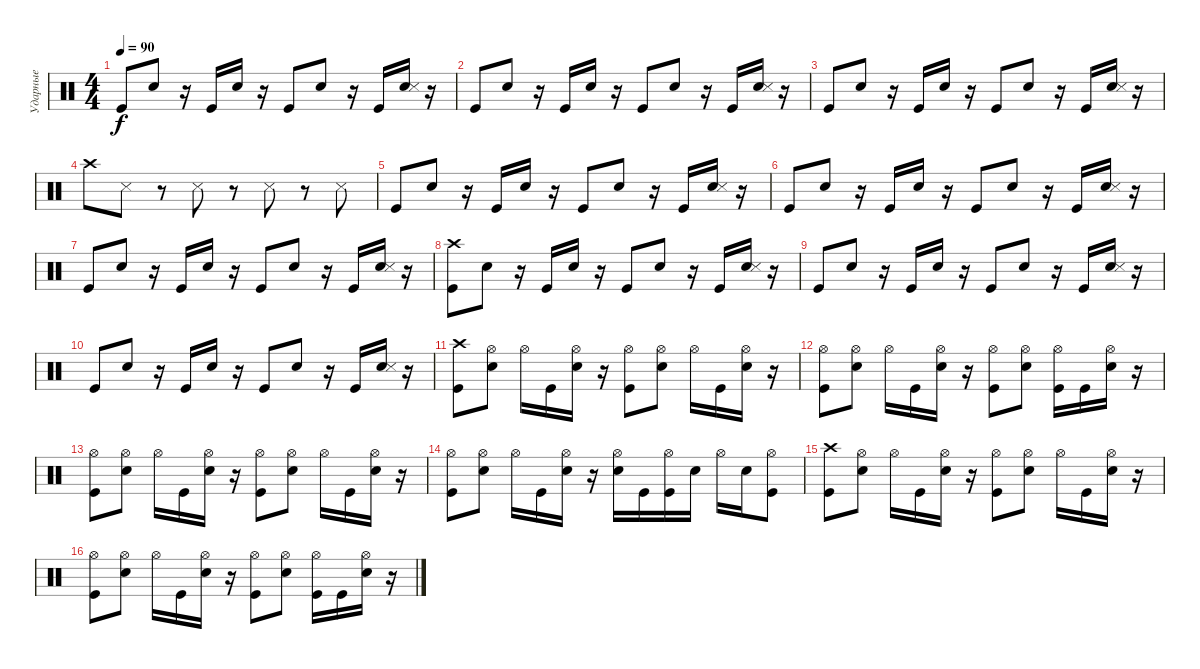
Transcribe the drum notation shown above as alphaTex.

\track ("Ударные" "Ударные") {instrument percussion}
\staff {score}
\articulation defaults
\ts (4 4)
\tempo 90
\clef neutral
\ks c "Kick (hit)".8{dy f} "Snare (hit) 2".8
r.16 "Kick (hit)".16 "Snare (hit) 2".16 r.16 "Kick (hit)".8 "Snare (hit) 2".8 r.16 "Kick (hit)".16 ("Snare (hit) 2" "Snare (side stick) 3").16 r.16 |
"Kick (hit)".8 "Snare (hit) 2".8 r.16 "Kick (hit)".16 "Snare (hit) 2".16 r.16 "Kick (hit)".8 "Snare (hit) 2".8 r.16 "Kick (hit)".16 ("Snare (hit) 2" "Snare (side stick) 3").16 r.16 |
"Kick (hit)".8 "Snare (hit) 2".8 r.16 "Kick (hit)".16 "Snare (hit) 2".16 r.16 "Kick (hit)".8 "Snare (hit) 2".8 r.16 "Kick (hit)".16 ("Snare (hit) 2" "Snare (side stick) 3").16 r.16 |
"Crash high (hit)".8 "Snare (side stick) 3".8 r.8 "Snare (side stick) 3".8 r.8 "Snare (side stick) 3".8 r.8 "Snare (side stick) 3".8 |
"Kick (hit)".8 "Snare (hit) 2".8 r.16 "Kick (hit)".16 "Snare (hit) 2".16 r.16 "Kick (hit)".8 "Snare (hit) 2".8 r.16 "Kick (hit)".16 ("Snare (hit) 2" "Snare (side stick) 3").16 r.16 |
"Kick (hit)".8 "Snare (hit) 2".8 r.16 "Kick (hit)".16 "Snare (hit) 2".16 r.16 "Kick (hit)".8 "Snare (hit) 2".8 r.16 "Kick (hit)".16 ("Snare (hit) 2" "Snare (side stick) 3").16 r.16 |
"Kick (hit)".8 "Snare (hit) 2".8 r.16 "Kick (hit)".16 "Snare (hit) 2".16 r.16 "Kick (hit)".8 "Snare (hit) 2".8 r.16 "Kick (hit)".16 ("Snare (hit) 2" "Snare (side stick) 3").16 r.16 |
("Kick (hit)" "Crash high (hit)").8 "Snare (hit) 2".8 r.16 "Kick (hit)".16 "Snare (hit) 2".16 r.16 "Kick (hit)".8 "Snare (hit) 2".8 r.16 "Kick (hit)".16 ("Snare (hit) 2" "Snare (side stick) 3").16 r.16 |
"Kick (hit)".8 "Snare (hit) 2".8 r.16 "Kick (hit)".16 "Snare (hit) 2".16 r.16 "Kick (hit)".8 "Snare (hit) 2".8 r.16 "Kick (hit)".16 ("Snare (hit) 2" "Snare (side stick) 3").16 r.16 |
"Kick (hit)".8 "Snare (hit) 2".8 r.16 "Kick (hit)".16 "Snare (hit) 2".16 r.16 "Kick (hit)".8 "Snare (hit) 2".8 r.16 "Kick (hit)".16 ("Electric Snare (hit)" "Snare (side stick) 3").16 r.16 |
("Kick (hit)" "Crash high (hit)").8 ("Electric Snare (hit)" "Hi-Hat (open)").8 "Hi-Hat (open)".16 "Kick (hit)".16 ("Electric Snare (hit)" "Hi-Hat (open)").16 r.16 ("Kick (hit)" "Hi-Hat (open)").8 ("Electric Snare (hit)" "Hi-Hat (open)").8 "Hi-Hat (open)".16 "Kick (hit)".16 ("Electric Snare (hit)" "Hi-Hat (open)").16 r.16 |
("Kick (hit)" "Hi-Hat (open)").8 ("Electric Snare (hit)" "Hi-Hat (open)").8 "Hi-Hat (open)".16 "Kick (hit)".16 ("Electric Snare (hit)" "Hi-Hat (open)").16 r.16 ("Kick (hit)" "Hi-Hat (open)").8 ("Electric Snare (hit)" "Hi-Hat (open)").8 ("Hi-Hat (open)" "Kick (hit)").16 "Kick (hit)".16 ("Electric Snare (hit)" "Hi-Hat (open)").16 r.16 |
("Kick (hit)" "Hi-Hat (open)").8 ("Electric Snare (hit)" "Hi-Hat (open)").8 "Hi-Hat (open)".16 "Kick (hit)".16 ("Electric Snare (hit)" "Hi-Hat (open)").16 r.16 ("Kick (hit)" "Hi-Hat (open)").8 ("Electric Snare (hit)" "Hi-Hat (open)").8 "Hi-Hat (open)".16 "Kick (hit)".16 ("Electric Snare (hit)" "Hi-Hat (open)").16 r.16 |
("Kick (hit)" "Hi-Hat (open)").8 ("Electric Snare (hit)" "Hi-Hat (open)").8 "Hi-Hat (open)".16 "Kick (hit)".16 ("Electric Snare (hit)" "Hi-Hat (open)").16 r.16 ("Electric Snare (hit)" "Hi-Hat (open)").16 "Kick (hit)".16 ("Kick (hit)" "Hi-Hat (open)").16 "Electric Snare (hit)".16 "Hi-Hat (open)".16 "Electric Snare (hit)".16 ("Kick (hit)" "Hi-Hat (open)").8 |
("Kick (hit)" "Crash high (hit)").8 ("Electric Snare (hit)" "Hi-Hat (open)").8 "Hi-Hat (open)".16 "Kick (hit)".16 ("Electric Snare (hit)" "Hi-Hat (open)").16 r.16 ("Kick (hit)" "Hi-Hat (open)").8 ("Electric Snare (hit)" "Hi-Hat (open)").8 "Hi-Hat (open)".16 "Kick (hit)".16 ("Electric Snare (hit)" "Hi-Hat (open)").16 r.16 |
("Kick (hit)" "Hi-Hat (open)").8 ("Electric Snare (hit)" "Hi-Hat (open)").8 "Hi-Hat (open)".16 "Kick (hit)".16 ("Electric Snare (hit)" "Hi-Hat (open)").16 r.16 ("Kick (hit)" "Hi-Hat (open)").8 ("Electric Snare (hit)" "Hi-Hat (open)").8 ("Hi-Hat (open)" "Kick (hit)").16 "Kick (hit)".16 ("Electric Snare (hit)" "Hi-Hat (open)").16 r.16
